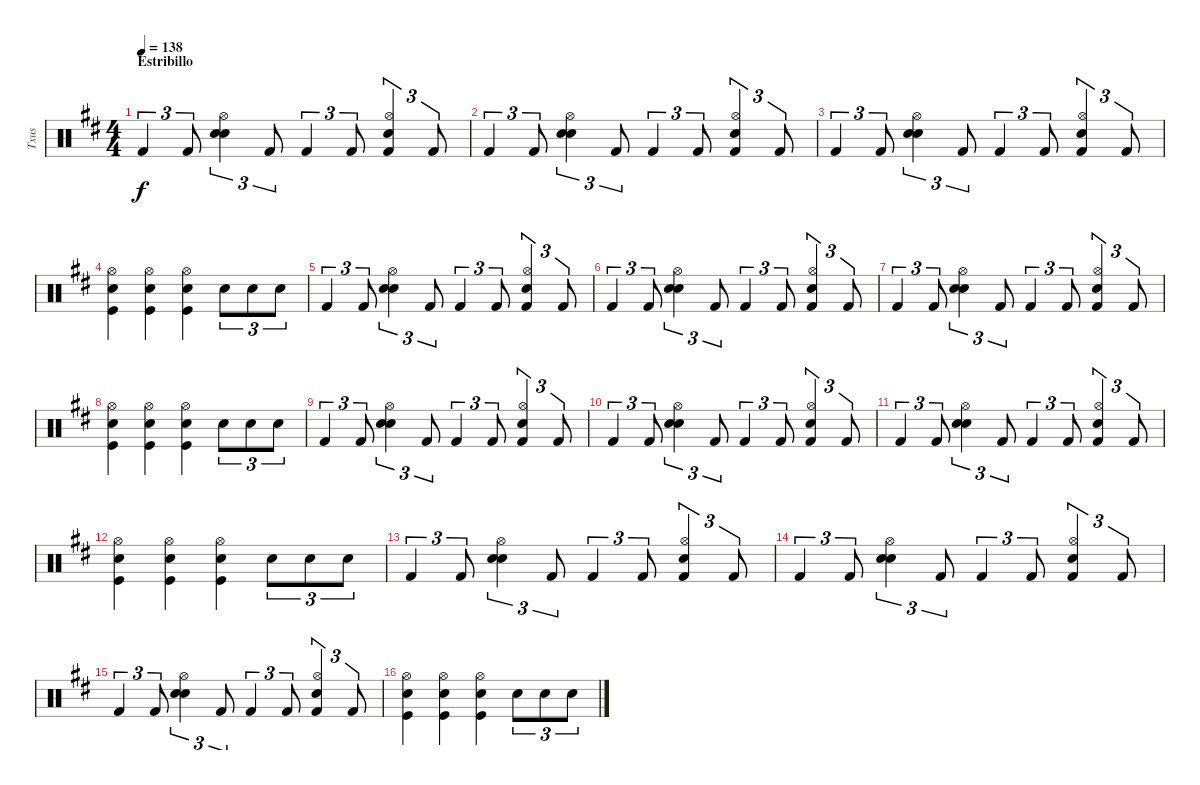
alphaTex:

\track ("Txus" "Txus") {instrument percussion}
\staff {score}
\articulation defaults
\ts (4 4)
\section ("" "Estribillo")
\tempo 138
\clef neutral
\ks d "Kick (hit) 2".4{tu (3 2) dy f} "Kick (hit) 2".8{tu (3 2)}
("Hi-Hat (open)" "Electric Snare (hit)" "Snare (hit) 2").4{tu (3 2)} "Kick (hit) 2".8{tu (3 2)} "Kick (hit) 2".4{tu (3 2)} "Kick (hit) 2".8{tu (3 2)} ("Hi-Hat (open)" "Electric Snare (hit)" "Kick (hit) 2").4{tu (3 2)} "Kick (hit) 2".8{tu (3 2)} |
"Kick (hit) 2".4{tu (3 2)} "Kick (hit) 2".8{tu (3 2)} ("Hi-Hat (open)" "Electric Snare (hit)" "Snare (hit) 2").4{tu (3 2)} "Kick (hit) 2".8{tu (3 2)} "Kick (hit) 2".4{tu (3 2)} "Kick (hit) 2".8{tu (3 2)} ("Hi-Hat (open)" "Electric Snare (hit)" "Kick (hit) 2").4{tu (3 2)} "Kick (hit) 2".8{tu (3 2)} |
"Kick (hit) 2".4{tu (3 2)} "Kick (hit) 2".8{tu (3 2)} ("Hi-Hat (open)" "Electric Snare (hit)" "Snare (hit) 2").4{tu (3 2)} "Kick (hit) 2".8{tu (3 2)} "Kick (hit) 2".4{tu (3 2)} "Kick (hit) 2".8{tu (3 2)} ("Hi-Hat (open)" "Electric Snare (hit)" "Kick (hit) 2").4{tu (3 2)} "Kick (hit) 2".8{tu (3 2)} |
("Hi-Hat (open)" "Electric Snare (hit)" "Kick (hit)").4 ("Hi-Hat (open)" "Electric Snare (hit)" "Kick (hit)").4 ("Hi-Hat (open)" "Electric Snare (hit)" "Kick (hit)").4 "Electric Snare (hit)".8{tu (3 2)} "Electric Snare (hit)".8{tu (3 2)} "Electric Snare (hit)".8{tu (3 2)} |
"Kick (hit) 2".4{tu (3 2)} "Kick (hit) 2".8{tu (3 2)} ("Hi-Hat (open)" "Electric Snare (hit)" "Snare (hit) 2").4{tu (3 2)} "Kick (hit) 2".8{tu (3 2)} "Kick (hit) 2".4{tu (3 2)} "Kick (hit) 2".8{tu (3 2)} ("Hi-Hat (open)" "Electric Snare (hit)" "Kick (hit) 2").4{tu (3 2)} "Kick (hit) 2".8{tu (3 2)} |
"Kick (hit) 2".4{tu (3 2)} "Kick (hit) 2".8{tu (3 2)} ("Hi-Hat (open)" "Electric Snare (hit)" "Snare (hit) 2").4{tu (3 2)} "Kick (hit) 2".8{tu (3 2)} "Kick (hit) 2".4{tu (3 2)} "Kick (hit) 2".8{tu (3 2)} ("Hi-Hat (open)" "Electric Snare (hit)" "Kick (hit) 2").4{tu (3 2)} "Kick (hit) 2".8{tu (3 2)} |
"Kick (hit) 2".4{tu (3 2)} "Kick (hit) 2".8{tu (3 2)} ("Hi-Hat (open)" "Electric Snare (hit)" "Snare (hit) 2").4{tu (3 2)} "Kick (hit) 2".8{tu (3 2)} "Kick (hit) 2".4{tu (3 2)} "Kick (hit) 2".8{tu (3 2)} ("Hi-Hat (open)" "Electric Snare (hit)" "Kick (hit) 2").4{tu (3 2)} "Kick (hit) 2".8{tu (3 2)} |
("Hi-Hat (open)" "Electric Snare (hit)" "Kick (hit)").4 ("Hi-Hat (open)" "Electric Snare (hit)" "Kick (hit)").4 ("Hi-Hat (open)" "Electric Snare (hit)" "Kick (hit)").4 "Electric Snare (hit)".8{tu (3 2)} "Electric Snare (hit)".8{tu (3 2)} "Electric Snare (hit)".8{tu (3 2)} |
"Kick (hit) 2".4{tu (3 2)} "Kick (hit) 2".8{tu (3 2)} ("Hi-Hat (open)" "Electric Snare (hit)" "Snare (hit) 2").4{tu (3 2)} "Kick (hit) 2".8{tu (3 2)} "Kick (hit) 2".4{tu (3 2)} "Kick (hit) 2".8{tu (3 2)} ("Hi-Hat (open)" "Electric Snare (hit)" "Kick (hit) 2").4{tu (3 2)} "Kick (hit) 2".8{tu (3 2)} |
"Kick (hit) 2".4{tu (3 2)} "Kick (hit) 2".8{tu (3 2)} ("Hi-Hat (open)" "Electric Snare (hit)" "Snare (hit) 2").4{tu (3 2)} "Kick (hit) 2".8{tu (3 2)} "Kick (hit) 2".4{tu (3 2)} "Kick (hit) 2".8{tu (3 2)} ("Hi-Hat (open)" "Electric Snare (hit)" "Kick (hit) 2").4{tu (3 2)} "Kick (hit) 2".8{tu (3 2)} |
"Kick (hit) 2".4{tu (3 2)} "Kick (hit) 2".8{tu (3 2)} ("Hi-Hat (open)" "Electric Snare (hit)" "Snare (hit) 2").4{tu (3 2)} "Kick (hit) 2".8{tu (3 2)} "Kick (hit) 2".4{tu (3 2)} "Kick (hit) 2".8{tu (3 2)} ("Hi-Hat (open)" "Electric Snare (hit)" "Kick (hit) 2").4{tu (3 2)} "Kick (hit) 2".8{tu (3 2)} |
("Hi-Hat (open)" "Electric Snare (hit)" "Kick (hit)").4 ("Hi-Hat (open)" "Electric Snare (hit)" "Kick (hit)").4 ("Hi-Hat (open)" "Electric Snare (hit)" "Kick (hit)").4 "Electric Snare (hit)".8{tu (3 2)} "Electric Snare (hit)".8{tu (3 2)} "Electric Snare (hit)".8{tu (3 2)} |
"Kick (hit) 2".4{tu (3 2)} "Kick (hit) 2".8{tu (3 2)} ("Hi-Hat (open)" "Electric Snare (hit)" "Snare (hit) 2").4{tu (3 2)} "Kick (hit) 2".8{tu (3 2)} "Kick (hit) 2".4{tu (3 2)} "Kick (hit) 2".8{tu (3 2)} ("Hi-Hat (open)" "Electric Snare (hit)" "Kick (hit) 2").4{tu (3 2)} "Kick (hit) 2".8{tu (3 2)} |
"Kick (hit) 2".4{tu (3 2)} "Kick (hit) 2".8{tu (3 2)} ("Hi-Hat (open)" "Electric Snare (hit)" "Snare (hit) 2").4{tu (3 2)} "Kick (hit) 2".8{tu (3 2)} "Kick (hit) 2".4{tu (3 2)} "Kick (hit) 2".8{tu (3 2)} ("Hi-Hat (open)" "Electric Snare (hit)" "Kick (hit) 2").4{tu (3 2)} "Kick (hit) 2".8{tu (3 2)} |
"Kick (hit) 2".4{tu (3 2)} "Kick (hit) 2".8{tu (3 2)} ("Hi-Hat (open)" "Electric Snare (hit)" "Snare (hit) 2").4{tu (3 2)} "Kick (hit) 2".8{tu (3 2)} "Kick (hit) 2".4{tu (3 2)} "Kick (hit) 2".8{tu (3 2)} ("Hi-Hat (open)" "Electric Snare (hit)" "Kick (hit) 2").4{tu (3 2)} "Kick (hit) 2".8{tu (3 2)} |
("Hi-Hat (open)" "Electric Snare (hit)" "Kick (hit)").4 ("Hi-Hat (open)" "Electric Snare (hit)" "Kick (hit)").4 ("Hi-Hat (open)" "Electric Snare (hit)" "Kick (hit)").4 "Electric Snare (hit)".8{tu (3 2)} "Electric Snare (hit)".8{tu (3 2)} "Electric Snare (hit)".8{tu (3 2)}
